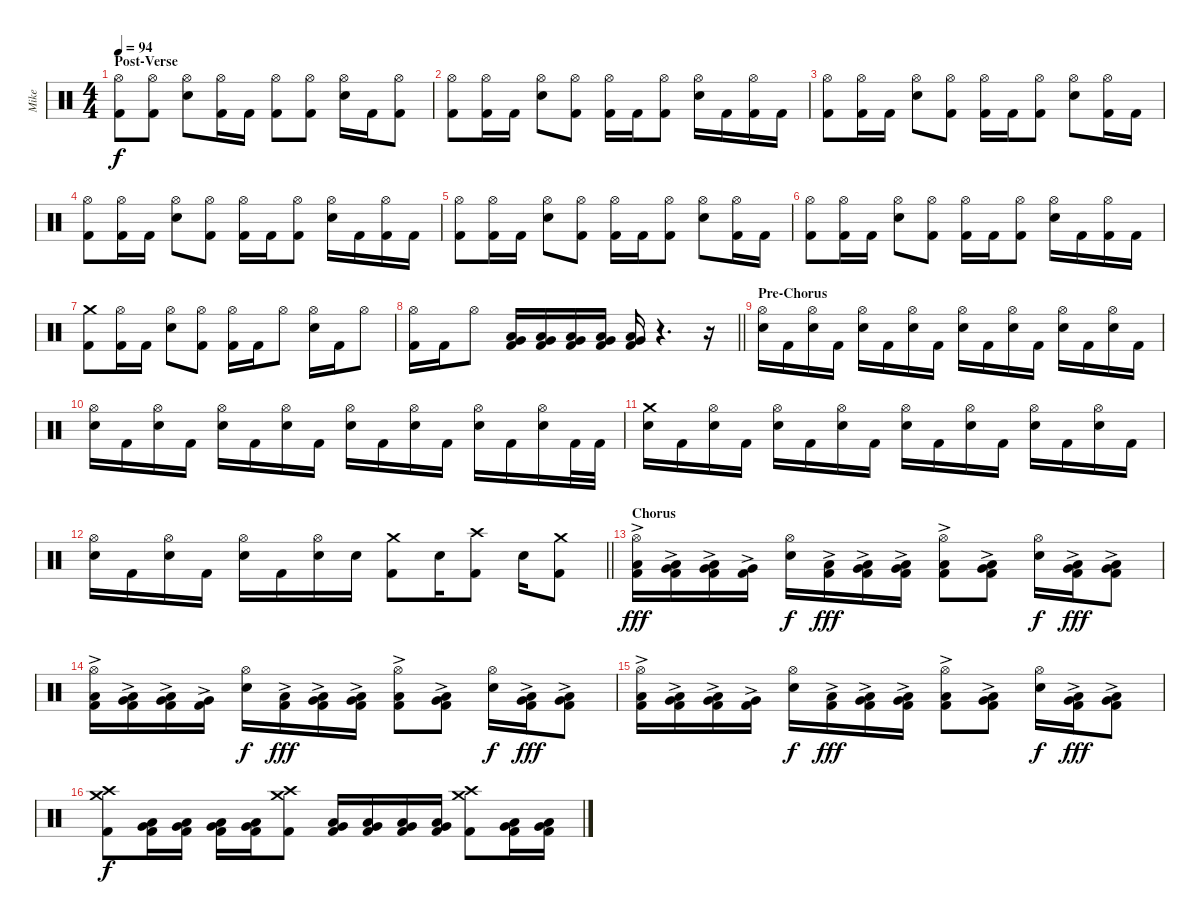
\track ("Mike" "Mike") {instrument percussion}
\staff {score}
\articulation defaults
\ts (4 4)
\section ("" "Post-Verse")
\tempo 94
\clef neutral
\ks c
("Hi-Hat (open)" "Kick (hit) 2").8{dy f} ("Hi-Hat (open)" "Kick (hit) 2").8 ("Hi-Hat (open)" "Snare (hit) 2").8 ("Hi-Hat (open)" "Kick (hit) 2").16 "Kick (hit) 2".16 ("Hi-Hat (open)" "Kick (hit) 2").8 ("Hi-Hat (open)" "Kick (hit) 2").8 ("Hi-Hat (open)" "Snare (hit) 2").16 "Kick (hit) 2".16 ("Hi-Hat (open)" "Kick (hit) 2").8 |
("Hi-Hat (open)" "Kick (hit) 2").8 ("Hi-Hat (open)" "Kick (hit) 2").16 "Kick (hit) 2".16 ("Hi-Hat (open)" "Snare (hit) 2").8 ("Hi-Hat (open)" "Kick (hit) 2").8 ("Hi-Hat (open)" "Kick (hit) 2").16 "Kick (hit) 2".16 ("Hi-Hat (open)" "Kick (hit) 2").8 ("Hi-Hat (open)" "Snare (hit) 2").16 "Kick (hit) 2".16 ("Hi-Hat (open)" "Kick (hit) 2").16 "Kick (hit) 2".16 |
("Hi-Hat (open)" "Kick (hit) 2").8 ("Hi-Hat (open)" "Kick (hit) 2").16 "Kick (hit) 2".16 ("Hi-Hat (open)" "Snare (hit) 2").8 ("Hi-Hat (open)" "Kick (hit) 2").8 ("Hi-Hat (open)" "Kick (hit) 2").16 "Kick (hit) 2".16 ("Hi-Hat (open)" "Kick (hit) 2").8 ("Hi-Hat (open)" "Snare (hit) 2").8 ("Hi-Hat (open)" "Kick (hit) 2").16 "Kick (hit) 2".16 |
("Hi-Hat (open)" "Kick (hit) 2").8 ("Hi-Hat (open)" "Kick (hit) 2").16 "Kick (hit) 2".16 ("Hi-Hat (open)" "Snare (hit) 2").8 ("Hi-Hat (open)" "Kick (hit) 2").8 ("Hi-Hat (open)" "Kick (hit) 2").16 "Kick (hit) 2".16 ("Hi-Hat (open)" "Kick (hit) 2").8 ("Hi-Hat (open)" "Snare (hit) 2").16 "Kick (hit) 2".16 ("Hi-Hat (open)" "Kick (hit) 2").16 "Kick (hit) 2".16 |
("Hi-Hat (open)" "Kick (hit) 2").8 ("Hi-Hat (open)" "Kick (hit) 2").16 "Kick (hit) 2".16 ("Hi-Hat (open)" "Snare (hit) 2").8 ("Hi-Hat (open)" "Kick (hit) 2").8 ("Hi-Hat (open)" "Kick (hit) 2").16 "Kick (hit) 2".16 ("Hi-Hat (open)" "Kick (hit) 2").8 ("Hi-Hat (open)" "Snare (hit) 2").8 ("Hi-Hat (open)" "Kick (hit) 2").16 "Kick (hit) 2".16 |
("Hi-Hat (open)" "Kick (hit) 2").8 ("Hi-Hat (open)" "Kick (hit) 2").16 "Kick (hit) 2".16 ("Hi-Hat (open)" "Snare (hit) 2").8 ("Hi-Hat (open)" "Kick (hit) 2").8 ("Hi-Hat (open)" "Kick (hit) 2").16 "Kick (hit) 2".16 ("Hi-Hat (open)" "Kick (hit) 2").8 ("Hi-Hat (open)" "Snare (hit) 2").16 "Kick (hit) 2".16 ("Hi-Hat (open)" "Kick (hit) 2").16 "Kick (hit) 2".16 |
("Crash medium (hit)" "Kick (hit) 2").8 ("Hi-Hat (open)" "Kick (hit) 2").16 "Kick (hit) 2".16 ("Hi-Hat (open)" "Snare (hit) 2").8 ("Hi-Hat (open)" "Kick (hit) 2").8 ("Hi-Hat (open)" "Kick (hit) 2").16 "Kick (hit) 2".16 "Hi-Hat (open)".8 ("Hi-Hat (open)" "Snare (hit) 2").16 "Kick (hit) 2".16 "Hi-Hat (open)".8 |
\barLineRight lightlight
("Hi-Hat (open)" "Kick (hit) 2").16 "Kick (hit) 2".16 "Hi-Hat (open)".8 ("Low Tom (hit)" "Very Low Tom (hit)" "Kick (hit) 2").16 ("Low Tom (hit)" "Very Low Tom (hit)" "Kick (hit) 2").16 ("Low Tom (hit)" "Very Low Tom (hit)" "Kick (hit) 2").16 ("Low Tom (hit)" "Very Low Tom (hit)" "Kick (hit) 2").16 ("Low Tom (hit)" "Very Low Tom (hit)" "Kick (hit) 2").16 r.4{d} r.16 |
\section ("" "Pre-Chorus")
("Hi-Hat (open)" "Snare (hit) 2").16 "Kick (hit) 2".16 ("Hi-Hat (open)" "Snare (hit) 2").16 "Kick (hit) 2".16 ("Hi-Hat (open)" "Snare (hit) 2").16 "Kick (hit) 2".16 ("Hi-Hat (open)" "Snare (hit) 2").16 "Kick (hit) 2".16 ("Hi-Hat (open)" "Snare (hit) 2").16 "Kick (hit) 2".16 ("Hi-Hat (open)" "Snare (hit) 2").16 "Kick (hit) 2".16 ("Hi-Hat (open)" "Snare (hit) 2").16 "Kick (hit) 2".16 ("Hi-Hat (open)" "Snare (hit) 2").16 "Kick (hit) 2".16 |
("Hi-Hat (open)" "Snare (hit) 2").16 "Kick (hit) 2".16 ("Hi-Hat (open)" "Snare (hit) 2").16 "Kick (hit) 2".16 ("Hi-Hat (open)" "Snare (hit) 2").16 "Kick (hit) 2".16 ("Hi-Hat (open)" "Snare (hit) 2").16 "Kick (hit) 2".16 ("Hi-Hat (open)" "Snare (hit) 2").16 "Kick (hit) 2".16 ("Hi-Hat (open)" "Snare (hit) 2").16 "Kick (hit) 2".16 ("Hi-Hat (open)" "Snare (hit) 2").16 "Kick (hit) 2".16 ("Hi-Hat (open)" "Snare (hit) 2").16 "Kick (hit) 2".32 "Kick (hit) 2".32 |
("Crash medium (hit)" "Snare (hit) 2").16 "Kick (hit) 2".16 ("Hi-Hat (open)" "Snare (hit) 2").16 "Kick (hit) 2".16 ("Hi-Hat (open)" "Snare (hit) 2").16 "Kick (hit) 2".16 ("Hi-Hat (open)" "Snare (hit) 2").16 "Kick (hit) 2".16 ("Hi-Hat (open)" "Snare (hit) 2").16 "Kick (hit) 2".16 ("Hi-Hat (open)" "Snare (hit) 2").16 "Kick (hit) 2".16 ("Hi-Hat (open)" "Snare (hit) 2").16 "Kick (hit) 2".16 ("Hi-Hat (open)" "Snare (hit) 2").16 "Kick (hit) 2".16 |
\barLineRight lightlight
("Hi-Hat (open)" "Snare (hit) 2").16 "Kick (hit) 2".16 ("Hi-Hat (open)" "Snare (hit) 2").16 "Kick (hit) 2".16 ("Hi-Hat (open)" "Snare (hit) 2").16 "Kick (hit) 2".16 ("Hi-Hat (open)" "Snare (hit) 2").16 "Snare (hit) 2".16 ("Crash medium (hit)" "Kick (hit) 2").8 "Snare (hit) 2".16 ("Crash high (hit)" "Kick (hit) 2").8 "Snare (hit) 2".16 ("Crash medium (hit)" "Kick (hit) 2").8 |
\section ("" "Chorus")
("Hi-Hat (open)" "Low Tom (hit)"{ac} "Kick (hit) 2").16{dy fff} ("Low Tom (hit)"{ac} "Very Low Tom (hit)"{ac} "Kick (hit) 2").16 ("Very Low Tom (hit)"{ac} "Low Floor Tom (hit)"{ac} "Kick (hit) 2").16 ("Very Low Tom (hit)"{ac} "Kick (hit) 2").16 ("Hi-Hat (open)" "Snare (hit) 2").16{dy f} ("Low Tom (hit)"{ac} "Kick (hit) 2").16{dy fff} ("Low Tom (hit)"{ac} "Very Low Tom (hit)"{ac} "Kick (hit) 2").16 ("Very Low Tom (hit)"{ac} "Low Floor Tom (hit)"{ac} "Kick (hit) 2").16 ("Hi-Hat (open)" "Low Floor Tom (hit)"{ac} "Kick (hit) 2").8 ("Very Low Tom (hit)"{ac} "Low Floor Tom (hit)"{ac} "Kick (hit) 2").8 ("Hi-Hat (open)" "Snare (hit) 2").16{dy f} ("Very Low Tom (hit)"{ac} "Low Floor Tom (hit)"{ac} "Kick (hit) 2").16{dy fff} ("Very Low Tom (hit)"{ac} "Low Tom (hit)"{ac} "Kick (hit) 2").8 |
("Hi-Hat (open)" "Low Tom (hit)"{ac} "Kick (hit) 2").16 ("Low Tom (hit)"{ac} "Very Low Tom (hit)"{ac} "Kick (hit) 2").16 ("Very Low Tom (hit)"{ac} "Low Floor Tom (hit)"{ac} "Kick (hit) 2").16 ("Very Low Tom (hit)"{ac} "Kick (hit) 2").16 ("Hi-Hat (open)" "Snare (hit) 2").16{dy f} ("Low Tom (hit)"{ac} "Kick (hit) 2").16{dy fff} ("Low Tom (hit)"{ac} "Very Low Tom (hit)"{ac} "Kick (hit) 2").16 ("Very Low Tom (hit)"{ac} "Low Floor Tom (hit)"{ac} "Kick (hit) 2").16 ("Hi-Hat (open)" "Low Floor Tom (hit)"{ac} "Kick (hit) 2").8 ("Very Low Tom (hit)"{ac} "Low Floor Tom (hit)"{ac} "Kick (hit) 2").8 ("Hi-Hat (open)" "Snare (hit) 2").16{dy f} ("Very Low Tom (hit)"{ac} "Low Floor Tom (hit)"{ac} "Kick (hit) 2").16{dy fff} ("Very Low Tom (hit)"{ac} "Low Tom (hit)"{ac} "Kick (hit) 2").8 |
("Hi-Hat (open)" "Low Tom (hit)"{ac} "Kick (hit) 2").16 ("Low Tom (hit)"{ac} "Very Low Tom (hit)"{ac} "Kick (hit) 2").16 ("Very Low Tom (hit)"{ac} "Low Floor Tom (hit)"{ac} "Kick (hit) 2").16 ("Very Low Tom (hit)"{ac} "Kick (hit) 2").16 ("Hi-Hat (open)" "Snare (hit) 2").16{dy f} ("Low Tom (hit)"{ac} "Kick (hit) 2").16{dy fff} ("Low Tom (hit)"{ac} "Very Low Tom (hit)"{ac} "Kick (hit) 2").16 ("Very Low Tom (hit)"{ac} "Low Floor Tom (hit)"{ac} "Kick (hit) 2").16 ("Hi-Hat (open)" "Low Floor Tom (hit)"{ac} "Kick (hit) 2").8 ("Very Low Tom (hit)"{ac} "Low Floor Tom (hit)"{ac} "Kick (hit) 2").8 ("Hi-Hat (open)" "Snare (hit) 2").16{dy f} ("Very Low Tom (hit)"{ac} "Low Floor Tom (hit)"{ac} "Kick (hit) 2").16{dy fff} ("Very Low Tom (hit)"{ac} "Low Tom (hit)"{ac} "Kick (hit) 2").8 |
("Crash medium (hit)" "Crash high (hit)" "Kick (hit) 2").8{dy f} ("Low Tom (hit)" "Very Low Tom (hit)" "Kick (hit) 2").16 ("Low Tom (hit)" "Very Low Tom (hit)" "Kick (hit) 2").16 ("Low Tom (hit)" "Very Low Tom (hit)" "Kick (hit) 2").16 ("Low Tom (hit)" "Very Low Tom (hit)" "Kick (hit) 2").16 ("Crash medium (hit)" "Crash high (hit)" "Kick (hit) 2").8 ("Low Tom (hit)" "Very Low Tom (hit)" "Kick (hit) 2").16 ("Low Tom (hit)" "Very Low Tom (hit)" "Kick (hit) 2").16 ("Low Tom (hit)" "Very Low Tom (hit)" "Kick (hit) 2").16 ("Low Tom (hit)" "Very Low Tom (hit)" "Kick (hit) 2").16 ("Crash medium (hit)" "Crash high (hit)" "Kick (hit) 2").8 ("Low Tom (hit)" "Very Low Tom (hit)" "Kick (hit) 2").16 ("Low Tom (hit)" "Very Low Tom (hit)" "Kick (hit) 2").16
